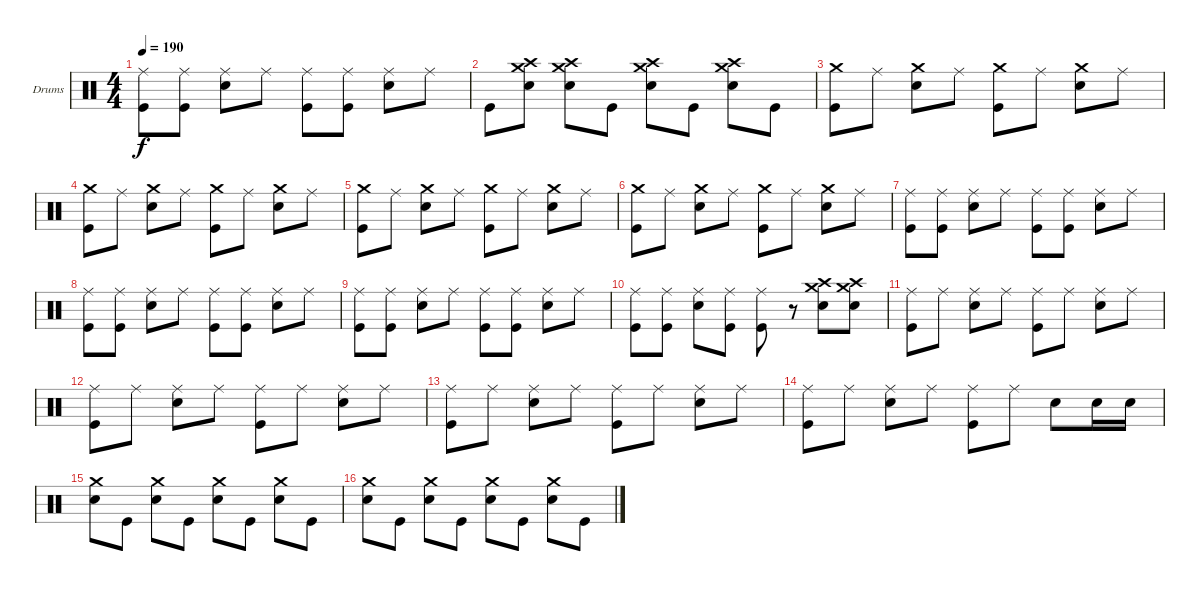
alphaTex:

\bracketExtendMode groupsimilarinstruments
\firstSystemTrackNameOrientation horizontal
\otherSystemsTrackNameOrientation horizontal
\track ("Drumkit" "Drums") {instrument percussion}
\staff {score}
\articulation defaults
\ts (4 4)
\tempo 190
\clef neutral
\ks c
("Kick (hit)" "Ride (middle)").8{dy f} ("Ride (middle)" "Kick (hit)").8 ("Snare (hit) 2" "Ride (middle)").8 "Ride (middle)".8 ("Kick (hit)" "Ride (middle)").8 ("Ride (middle)" "Kick (hit)").8 ("Snare (hit) 2" "Ride (middle)").8 "Ride (middle)".8 |
"Kick (hit)".8 ("Crash high (hit)" "Crash medium (hit)" "Snare (hit) 2").8 ("Crash high (hit)" "Crash medium (hit)" "Snare (hit) 2").8 "Kick (hit)".8 ("Crash high (hit)" "Crash medium (hit)" "Snare (hit) 2").8 "Kick (hit)".8 ("Crash high (hit)" "Crash medium (hit)" "Snare (hit) 2").8 "Kick (hit)".8 |
("Kick (hit)" "Crash medium (hit)").8 "Ride (middle)".8 ("Snare (hit) 2" "Crash medium (hit)").8 "Ride (middle)".8 ("Kick (hit)" "Crash medium (hit)").8 "Ride (middle)".8 ("Snare (hit) 2" "Crash medium (hit)").8 "Ride (middle)".8 |
("Kick (hit)" "Crash medium (hit)").8 "Ride (middle)".8 ("Snare (hit) 2" "Crash medium (hit)").8 "Ride (middle)".8 ("Kick (hit)" "Crash medium (hit)").8 "Ride (middle)".8 ("Snare (hit) 2" "Crash medium (hit)").8 "Ride (middle)".8 |
("Kick (hit)" "Crash medium (hit)").8 "Ride (middle)".8 ("Snare (hit) 2" "Crash medium (hit)").8 "Ride (middle)".8 ("Kick (hit)" "Crash medium (hit)").8 "Ride (middle)".8 ("Snare (hit) 2" "Crash medium (hit)").8 "Ride (middle)".8 |
("Kick (hit)" "Crash medium (hit)").8 "Ride (middle)".8 ("Snare (hit) 2" "Crash medium (hit)").8 "Ride (middle)".8 ("Kick (hit)" "Crash medium (hit)").8 "Ride (middle)".8 ("Snare (hit) 2" "Crash medium (hit)").8 "Ride (middle)".8 |
("Kick (hit)" "Ride (middle)").8 ("Ride (middle)" "Kick (hit)").8 ("Snare (hit) 2" "Ride (middle)").8 "Ride (middle)".8 ("Kick (hit)" "Ride (middle)").8 ("Ride (middle)" "Kick (hit)").8 ("Snare (hit) 2" "Ride (middle)").8 "Ride (middle)".8 |
("Kick (hit)" "Ride (middle)").8 ("Ride (middle)" "Kick (hit)").8 ("Snare (hit) 2" "Ride (middle)").8 "Ride (middle)".8 ("Kick (hit)" "Ride (middle)").8 ("Ride (middle)" "Kick (hit)").8 ("Snare (hit) 2" "Ride (middle)").8 "Ride (middle)".8 |
("Kick (hit)" "Ride (middle)").8 ("Ride (middle)" "Kick (hit)").8 ("Snare (hit) 2" "Ride (middle)").8 "Ride (middle)".8 ("Kick (hit)" "Ride (middle)").8 ("Ride (middle)" "Kick (hit)").8 ("Snare (hit) 2" "Ride (middle)").8 "Ride (middle)".8 |
("Kick (hit)" "Ride (middle)").8 ("Ride (middle)" "Kick (hit)").8 ("Snare (hit) 2" "Ride (middle)").8 ("Ride (middle)" "Kick (hit)").8 ("Kick (hit)" "Ride (middle)").8 r.8 ("Crash medium (hit)" "Crash high (hit)" "Snare (hit) 2").8 ("Crash high (hit)" "Crash medium (hit)" "Snare (hit) 2").8 |
("Kick (hit)" "Ride (middle)").8 "Ride (middle)".8 ("Snare (hit) 2" "Ride (middle)").8 "Ride (middle)".8 ("Kick (hit)" "Ride (middle)").8 "Ride (middle)".8 ("Snare (hit) 2" "Ride (middle)").8 "Ride (middle)".8 |
("Kick (hit)" "Ride (middle)").8 "Ride (middle)".8 ("Snare (hit) 2" "Ride (middle)").8 "Ride (middle)".8 ("Kick (hit)" "Ride (middle)").8 "Ride (middle)".8 ("Snare (hit) 2" "Ride (middle)").8 "Ride (middle)".8 |
("Kick (hit)" "Ride (middle)").8 "Ride (middle)".8 ("Snare (hit) 2" "Ride (middle)").8 "Ride (middle)".8 ("Kick (hit)" "Ride (middle)").8 "Ride (middle)".8 ("Snare (hit) 2" "Ride (middle)").8 "Ride (middle)".8 |
("Kick (hit)" "Ride (middle)").8 "Ride (middle)".8 ("Snare (hit) 2" "Ride (middle)").8 "Ride (middle)".8 ("Kick (hit)" "Ride (middle)").8 "Ride (middle)".8 "Snare (hit) 2".8 "Snare (hit) 2".16 "Snare (hit) 2".16 |
("Snare (hit) 2" "Crash medium (hit)").8 "Kick (hit)".8 ("Snare (hit) 2" "Crash medium (hit)").8 "Kick (hit)".8 ("Snare (hit) 2" "Crash medium (hit)").8 "Kick (hit)".8 ("Snare (hit) 2" "Crash medium (hit)").8 "Kick (hit)".8 |
("Snare (hit) 2" "Crash medium (hit)").8 "Kick (hit)".8 ("Snare (hit) 2" "Crash medium (hit)").8 "Kick (hit)".8 ("Snare (hit) 2" "Crash medium (hit)").8 "Kick (hit)".8 ("Snare (hit) 2" "Crash medium (hit)").8 "Kick (hit)".8
